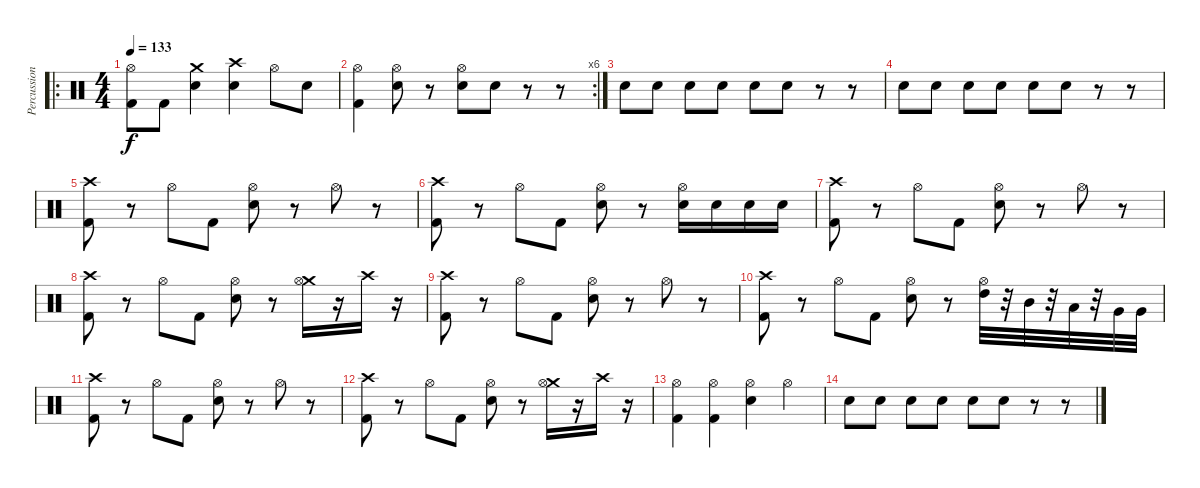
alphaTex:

\track ("Percussion" "Percussion") {instrument percussion}
\staff {score}
\articulation defaults
\ro
\ts (4 4)
\tempo 133
\clef neutral
\ks c
("Hi-Hat (open)" "Kick (hit) 2").8{dy f} "Kick (hit) 2".8 ("Crash medium (hit)" "Electric Snare (hit)").4 ("Crash high (hit)" "Electric Snare (hit)").4 "Hi-Hat (open)".8 "Electric Snare (hit)".8 |
\rc 6
("Hi-Hat (open)" "Kick (hit) 2").4 ("Hi-Hat (open)" "Electric Snare (hit)").8 r.8 ("Hi-Hat (open)" "Electric Snare (hit)").8 "Electric Snare (hit)".8 r.8 r.8 |
"Electric Snare (hit)".8 "Electric Snare (hit)".8 "Electric Snare (hit)".8 "Electric Snare (hit)".8 "Electric Snare (hit)".8 "Electric Snare (hit)".8 r.8 r.8 |
"Electric Snare (hit)".8 "Electric Snare (hit)".8 "Electric Snare (hit)".8 "Electric Snare (hit)".8 "Electric Snare (hit)".8 "Electric Snare (hit)".8 r.8 r.8 |
("Crash high (hit)" "Kick (hit) 2").8 r.8 "Hi-Hat (open)".8 "Kick (hit) 2".8 ("Electric Snare (hit)" "Hi-Hat (open)").8 r.8 "Hi-Hat (open)".8 r.8 |
("Crash high (hit)" "Kick (hit) 2").8 r.8 "Hi-Hat (open)".8 "Kick (hit) 2".8 ("Electric Snare (hit)" "Hi-Hat (open)").8 r.8 ("Electric Snare (hit)" "Hi-Hat (open)").16 "Electric Snare (hit)".16 "Electric Snare (hit)".16 "Electric Snare (hit)".16 |
("Crash high (hit)" "Kick (hit) 2").8 r.8 "Hi-Hat (open)".8 "Kick (hit) 2".8 ("Electric Snare (hit)" "Hi-Hat (open)").8 r.8 "Hi-Hat (open)".8 r.8 |
("Crash high (hit)" "Kick (hit) 2").8 r.8 "Hi-Hat (open)".8 "Kick (hit) 2".8 ("Electric Snare (hit)" "Hi-Hat (open)").8 r.8 ("Crash medium (hit)" "Hi-Hat (open)").16 r.16 "Crash high (hit)".16 r.16 |
("Crash high (hit)" "Kick (hit) 2").8 r.8 "Hi-Hat (open)".8 "Kick (hit) 2".8 ("Electric Snare (hit)" "Hi-Hat (open)").8 r.8 "Hi-Hat (open)".8 r.8 |
("Crash high (hit)" "Kick (hit) 2").8 r.8 "Hi-Hat (open)".8 "Kick (hit) 2".8 ("Electric Snare (hit)" "Hi-Hat (open)").8 r.8 ("High Tom (hit)" "Hi-Hat (open)").32 r.32 "Mid Tom (hit)".32 r.32 "Low Tom (hit)".32 r.32 "Very Low Tom (hit)".32 "Very Low Tom (hit)".32 |
("Crash high (hit)" "Kick (hit) 2").8 r.8 "Hi-Hat (open)".8 "Kick (hit) 2".8 ("Electric Snare (hit)" "Hi-Hat (open)").8 r.8 "Hi-Hat (open)".8 r.8 |
("Crash high (hit)" "Kick (hit) 2").8 r.8 "Hi-Hat (open)".8 "Kick (hit) 2".8 ("Electric Snare (hit)" "Hi-Hat (open)").8 r.8 ("Crash medium (hit)" "Hi-Hat (open)").16 r.16 "Crash high (hit)".16 r.16 |
("Hi-Hat (open)" "Kick (hit) 2").4 ("Hi-Hat (open)" "Kick (hit) 2").4 ("Hi-Hat (open)" "Electric Snare (hit)").4 "Hi-Hat (open)".4 |
"Electric Snare (hit)".8 "Electric Snare (hit)".8 "Electric Snare (hit)".8 "Electric Snare (hit)".8 "Electric Snare (hit)".8 "Electric Snare (hit)".8 r.8 r.8
